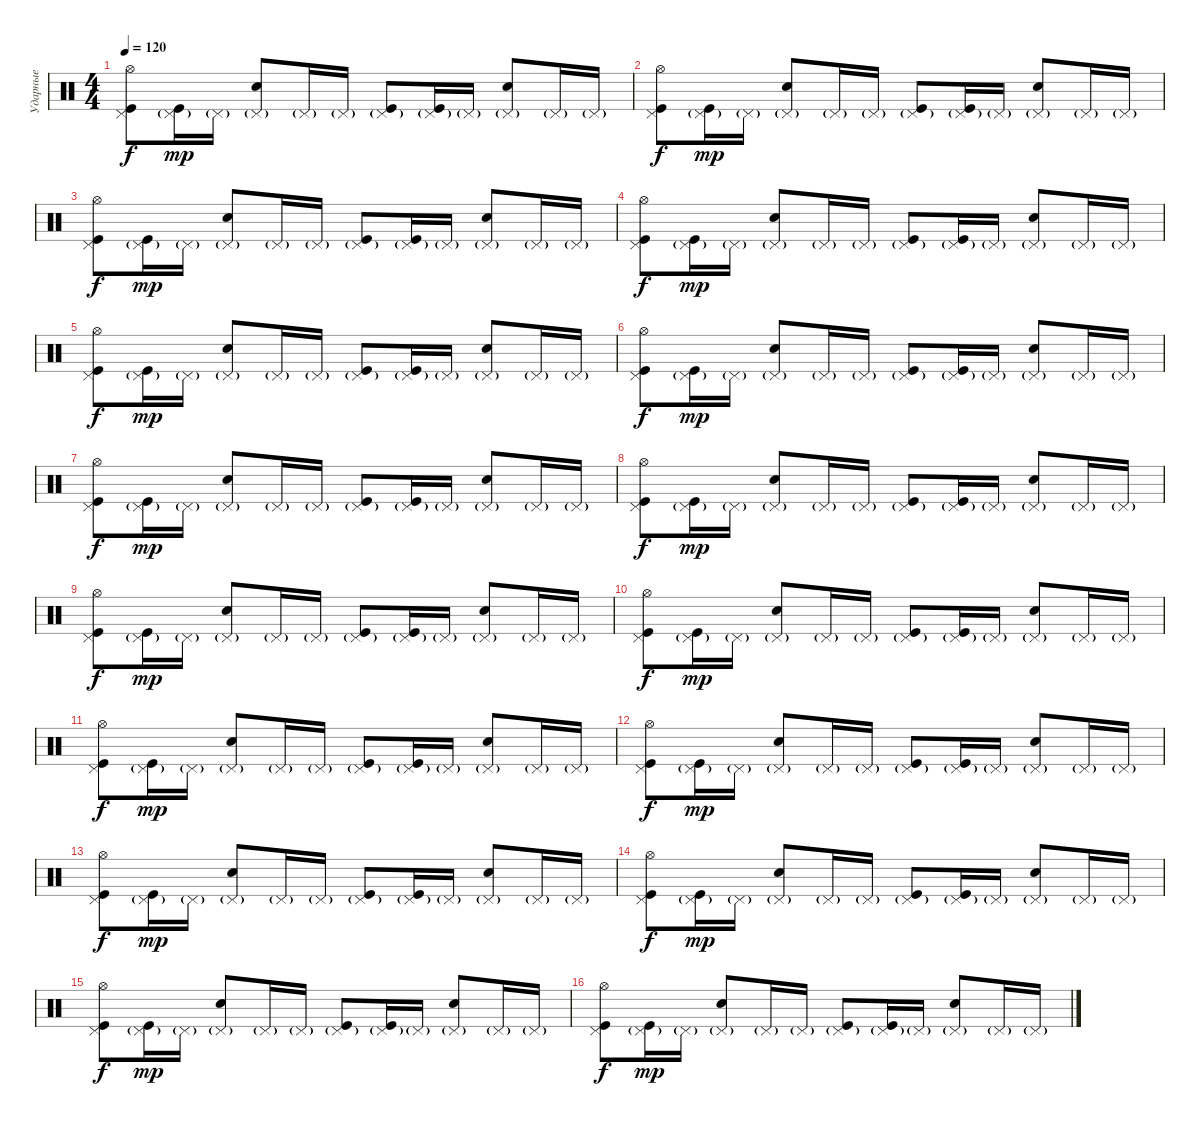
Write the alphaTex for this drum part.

\track ("Ударные" "Ударные") {instrument percussion}
\staff {score}
\articulation defaults
\ts (4 4)
\tempo 120
\clef neutral
\ks c
("Hi-Hat (open)" "Kick (hit)" "Pedal Hi-Hat (hit)").8{dy f} ("Kick (hit)" "Pedal Hi-Hat (hit)"{g}).16{dy mp} "Pedal Hi-Hat (hit)"{g}.16 ("Electric Snare (hit)" "Pedal Hi-Hat (hit)"{g}).8 "Pedal Hi-Hat (hit)"{g}.16 "Pedal Hi-Hat (hit)"{g}.16 ("Kick (hit)" "Pedal Hi-Hat (hit)"{g}).8 ("Kick (hit)" "Pedal Hi-Hat (hit)"{g}).16 "Pedal Hi-Hat (hit)"{g}.16 ("Electric Snare (hit)" "Pedal Hi-Hat (hit)"{g}).8 "Pedal Hi-Hat (hit)"{g}.16 "Pedal Hi-Hat (hit)"{g}.16 |
("Hi-Hat (open)" "Kick (hit)" "Pedal Hi-Hat (hit)").8{dy f} ("Kick (hit)" "Pedal Hi-Hat (hit)"{g}).16{dy mp} "Pedal Hi-Hat (hit)"{g}.16 ("Electric Snare (hit)" "Pedal Hi-Hat (hit)"{g}).8 "Pedal Hi-Hat (hit)"{g}.16 "Pedal Hi-Hat (hit)"{g}.16 ("Kick (hit)" "Pedal Hi-Hat (hit)"{g}).8 ("Kick (hit)" "Pedal Hi-Hat (hit)"{g}).16 "Pedal Hi-Hat (hit)"{g}.16 ("Electric Snare (hit)" "Pedal Hi-Hat (hit)"{g}).8 "Pedal Hi-Hat (hit)"{g}.16 "Pedal Hi-Hat (hit)"{g}.16 |
("Hi-Hat (open)" "Kick (hit)" "Pedal Hi-Hat (hit)").8{dy f} ("Kick (hit)" "Pedal Hi-Hat (hit)"{g}).16{dy mp} "Pedal Hi-Hat (hit)"{g}.16 ("Electric Snare (hit)" "Pedal Hi-Hat (hit)"{g}).8 "Pedal Hi-Hat (hit)"{g}.16 "Pedal Hi-Hat (hit)"{g}.16 ("Kick (hit)" "Pedal Hi-Hat (hit)"{g}).8 ("Kick (hit)" "Pedal Hi-Hat (hit)"{g}).16 "Pedal Hi-Hat (hit)"{g}.16 ("Electric Snare (hit)" "Pedal Hi-Hat (hit)"{g}).8 "Pedal Hi-Hat (hit)"{g}.16 "Pedal Hi-Hat (hit)"{g}.16 |
("Hi-Hat (open)" "Kick (hit)" "Pedal Hi-Hat (hit)").8{dy f} ("Kick (hit)" "Pedal Hi-Hat (hit)"{g}).16{dy mp} "Pedal Hi-Hat (hit)"{g}.16 ("Electric Snare (hit)" "Pedal Hi-Hat (hit)"{g}).8 "Pedal Hi-Hat (hit)"{g}.16 "Pedal Hi-Hat (hit)"{g}.16 ("Kick (hit)" "Pedal Hi-Hat (hit)"{g}).8 ("Kick (hit)" "Pedal Hi-Hat (hit)"{g}).16 "Pedal Hi-Hat (hit)"{g}.16 ("Electric Snare (hit)" "Pedal Hi-Hat (hit)"{g}).8 "Pedal Hi-Hat (hit)"{g}.16 "Pedal Hi-Hat (hit)"{g}.16 |
("Hi-Hat (open)" "Kick (hit)" "Pedal Hi-Hat (hit)").8{dy f} ("Kick (hit)" "Pedal Hi-Hat (hit)"{g}).16{dy mp} "Pedal Hi-Hat (hit)"{g}.16 ("Electric Snare (hit)" "Pedal Hi-Hat (hit)"{g}).8 "Pedal Hi-Hat (hit)"{g}.16 "Pedal Hi-Hat (hit)"{g}.16 ("Kick (hit)" "Pedal Hi-Hat (hit)"{g}).8 ("Kick (hit)" "Pedal Hi-Hat (hit)"{g}).16 "Pedal Hi-Hat (hit)"{g}.16 ("Electric Snare (hit)" "Pedal Hi-Hat (hit)"{g}).8 "Pedal Hi-Hat (hit)"{g}.16 "Pedal Hi-Hat (hit)"{g}.16 |
("Hi-Hat (open)" "Kick (hit)" "Pedal Hi-Hat (hit)").8{dy f} ("Kick (hit)" "Pedal Hi-Hat (hit)"{g}).16{dy mp} "Pedal Hi-Hat (hit)"{g}.16 ("Electric Snare (hit)" "Pedal Hi-Hat (hit)"{g}).8 "Pedal Hi-Hat (hit)"{g}.16 "Pedal Hi-Hat (hit)"{g}.16 ("Kick (hit)" "Pedal Hi-Hat (hit)"{g}).8 ("Kick (hit)" "Pedal Hi-Hat (hit)"{g}).16 "Pedal Hi-Hat (hit)"{g}.16 ("Electric Snare (hit)" "Pedal Hi-Hat (hit)"{g}).8 "Pedal Hi-Hat (hit)"{g}.16 "Pedal Hi-Hat (hit)"{g}.16 |
("Hi-Hat (open)" "Kick (hit)" "Pedal Hi-Hat (hit)").8{dy f} ("Kick (hit)" "Pedal Hi-Hat (hit)"{g}).16{dy mp} "Pedal Hi-Hat (hit)"{g}.16 ("Electric Snare (hit)" "Pedal Hi-Hat (hit)"{g}).8 "Pedal Hi-Hat (hit)"{g}.16 "Pedal Hi-Hat (hit)"{g}.16 ("Kick (hit)" "Pedal Hi-Hat (hit)"{g}).8 ("Kick (hit)" "Pedal Hi-Hat (hit)"{g}).16 "Pedal Hi-Hat (hit)"{g}.16 ("Electric Snare (hit)" "Pedal Hi-Hat (hit)"{g}).8 "Pedal Hi-Hat (hit)"{g}.16 "Pedal Hi-Hat (hit)"{g}.16 |
("Hi-Hat (open)" "Kick (hit)" "Pedal Hi-Hat (hit)").8{dy f} ("Kick (hit)" "Pedal Hi-Hat (hit)"{g}).16{dy mp} "Pedal Hi-Hat (hit)"{g}.16 ("Electric Snare (hit)" "Pedal Hi-Hat (hit)"{g}).8 "Pedal Hi-Hat (hit)"{g}.16 "Pedal Hi-Hat (hit)"{g}.16 ("Kick (hit)" "Pedal Hi-Hat (hit)"{g}).8 ("Kick (hit)" "Pedal Hi-Hat (hit)"{g}).16 "Pedal Hi-Hat (hit)"{g}.16 ("Electric Snare (hit)" "Pedal Hi-Hat (hit)"{g}).8 "Pedal Hi-Hat (hit)"{g}.16 "Pedal Hi-Hat (hit)"{g}.16 |
("Hi-Hat (open)" "Kick (hit)" "Pedal Hi-Hat (hit)").8{dy f} ("Kick (hit)" "Pedal Hi-Hat (hit)"{g}).16{dy mp} "Pedal Hi-Hat (hit)"{g}.16 ("Electric Snare (hit)" "Pedal Hi-Hat (hit)"{g}).8 "Pedal Hi-Hat (hit)"{g}.16 "Pedal Hi-Hat (hit)"{g}.16 ("Kick (hit)" "Pedal Hi-Hat (hit)"{g}).8 ("Kick (hit)" "Pedal Hi-Hat (hit)"{g}).16 "Pedal Hi-Hat (hit)"{g}.16 ("Electric Snare (hit)" "Pedal Hi-Hat (hit)"{g}).8 "Pedal Hi-Hat (hit)"{g}.16 "Pedal Hi-Hat (hit)"{g}.16 |
("Hi-Hat (open)" "Kick (hit)" "Pedal Hi-Hat (hit)").8{dy f} ("Kick (hit)" "Pedal Hi-Hat (hit)"{g}).16{dy mp} "Pedal Hi-Hat (hit)"{g}.16 ("Electric Snare (hit)" "Pedal Hi-Hat (hit)"{g}).8 "Pedal Hi-Hat (hit)"{g}.16 "Pedal Hi-Hat (hit)"{g}.16 ("Kick (hit)" "Pedal Hi-Hat (hit)"{g}).8 ("Kick (hit)" "Pedal Hi-Hat (hit)"{g}).16 "Pedal Hi-Hat (hit)"{g}.16 ("Electric Snare (hit)" "Pedal Hi-Hat (hit)"{g}).8 "Pedal Hi-Hat (hit)"{g}.16 "Pedal Hi-Hat (hit)"{g}.16 |
("Hi-Hat (open)" "Kick (hit)" "Pedal Hi-Hat (hit)").8{dy f} ("Kick (hit)" "Pedal Hi-Hat (hit)"{g}).16{dy mp} "Pedal Hi-Hat (hit)"{g}.16 ("Electric Snare (hit)" "Pedal Hi-Hat (hit)"{g}).8 "Pedal Hi-Hat (hit)"{g}.16 "Pedal Hi-Hat (hit)"{g}.16 ("Kick (hit)" "Pedal Hi-Hat (hit)"{g}).8 ("Kick (hit)" "Pedal Hi-Hat (hit)"{g}).16 "Pedal Hi-Hat (hit)"{g}.16 ("Electric Snare (hit)" "Pedal Hi-Hat (hit)"{g}).8 "Pedal Hi-Hat (hit)"{g}.16 "Pedal Hi-Hat (hit)"{g}.16 |
("Hi-Hat (open)" "Kick (hit)" "Pedal Hi-Hat (hit)").8{dy f} ("Kick (hit)" "Pedal Hi-Hat (hit)"{g}).16{dy mp} "Pedal Hi-Hat (hit)"{g}.16 ("Electric Snare (hit)" "Pedal Hi-Hat (hit)"{g}).8 "Pedal Hi-Hat (hit)"{g}.16 "Pedal Hi-Hat (hit)"{g}.16 ("Kick (hit)" "Pedal Hi-Hat (hit)"{g}).8 ("Kick (hit)" "Pedal Hi-Hat (hit)"{g}).16 "Pedal Hi-Hat (hit)"{g}.16 ("Electric Snare (hit)" "Pedal Hi-Hat (hit)"{g}).8 "Pedal Hi-Hat (hit)"{g}.16 "Pedal Hi-Hat (hit)"{g}.16 |
("Hi-Hat (open)" "Kick (hit)" "Pedal Hi-Hat (hit)").8{dy f} ("Kick (hit)" "Pedal Hi-Hat (hit)"{g}).16{dy mp} "Pedal Hi-Hat (hit)"{g}.16 ("Electric Snare (hit)" "Pedal Hi-Hat (hit)"{g}).8 "Pedal Hi-Hat (hit)"{g}.16 "Pedal Hi-Hat (hit)"{g}.16 ("Kick (hit)" "Pedal Hi-Hat (hit)"{g}).8 ("Kick (hit)" "Pedal Hi-Hat (hit)"{g}).16 "Pedal Hi-Hat (hit)"{g}.16 ("Electric Snare (hit)" "Pedal Hi-Hat (hit)"{g}).8 "Pedal Hi-Hat (hit)"{g}.16 "Pedal Hi-Hat (hit)"{g}.16 |
("Hi-Hat (open)" "Kick (hit)" "Pedal Hi-Hat (hit)").8{dy f} ("Kick (hit)" "Pedal Hi-Hat (hit)"{g}).16{dy mp} "Pedal Hi-Hat (hit)"{g}.16 ("Electric Snare (hit)" "Pedal Hi-Hat (hit)"{g}).8 "Pedal Hi-Hat (hit)"{g}.16 "Pedal Hi-Hat (hit)"{g}.16 ("Kick (hit)" "Pedal Hi-Hat (hit)"{g}).8 ("Kick (hit)" "Pedal Hi-Hat (hit)"{g}).16 "Pedal Hi-Hat (hit)"{g}.16 ("Electric Snare (hit)" "Pedal Hi-Hat (hit)"{g}).8 "Pedal Hi-Hat (hit)"{g}.16 "Pedal Hi-Hat (hit)"{g}.16 |
("Hi-Hat (open)" "Kick (hit)" "Pedal Hi-Hat (hit)").8{dy f} ("Kick (hit)" "Pedal Hi-Hat (hit)"{g}).16{dy mp} "Pedal Hi-Hat (hit)"{g}.16 ("Electric Snare (hit)" "Pedal Hi-Hat (hit)"{g}).8 "Pedal Hi-Hat (hit)"{g}.16 "Pedal Hi-Hat (hit)"{g}.16 ("Kick (hit)" "Pedal Hi-Hat (hit)"{g}).8 ("Kick (hit)" "Pedal Hi-Hat (hit)"{g}).16 "Pedal Hi-Hat (hit)"{g}.16 ("Electric Snare (hit)" "Pedal Hi-Hat (hit)"{g}).8 "Pedal Hi-Hat (hit)"{g}.16 "Pedal Hi-Hat (hit)"{g}.16 |
("Hi-Hat (open)" "Kick (hit)" "Pedal Hi-Hat (hit)").8{dy f} ("Kick (hit)" "Pedal Hi-Hat (hit)"{g}).16{dy mp} "Pedal Hi-Hat (hit)"{g}.16 ("Electric Snare (hit)" "Pedal Hi-Hat (hit)"{g}).8 "Pedal Hi-Hat (hit)"{g}.16 "Pedal Hi-Hat (hit)"{g}.16 ("Kick (hit)" "Pedal Hi-Hat (hit)"{g}).8 ("Kick (hit)" "Pedal Hi-Hat (hit)"{g}).16 "Pedal Hi-Hat (hit)"{g}.16 ("Electric Snare (hit)" "Pedal Hi-Hat (hit)"{g}).8 "Pedal Hi-Hat (hit)"{g}.16 "Pedal Hi-Hat (hit)"{g}.16
